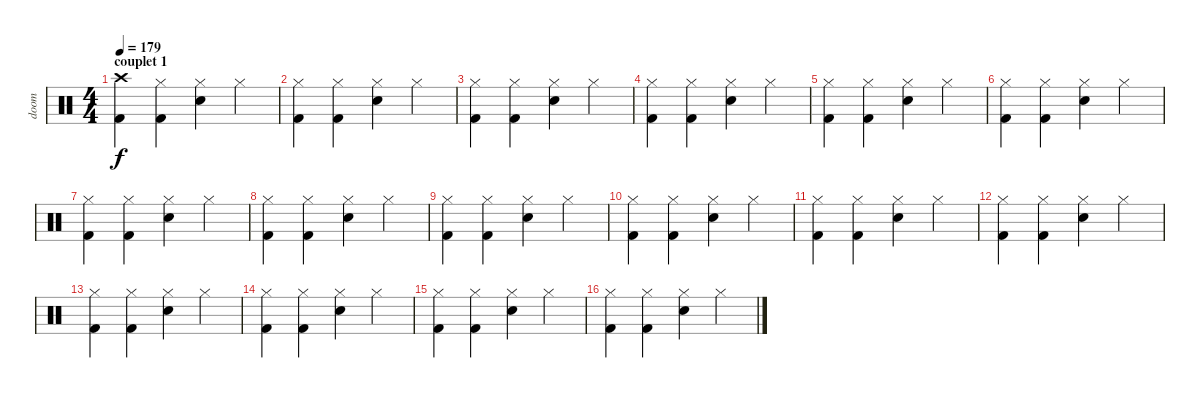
\track ("doom" "doom") {instrument percussion}
\staff {score}
\articulation defaults
\ts (4 4)
\section ("" "couplet 1")
\tempo 179
\clef neutral
\ks c
("Crash high (hit)" "Kick (hit) 2").4{dy f} ("Hi-Hat (closed)" "Kick (hit) 2").4 ("Hi-Hat (closed)" "Snare (hit) 2").4 "Hi-Hat (closed)".4 |
("Hi-Hat (closed)" "Kick (hit) 2").4 ("Hi-Hat (closed)" "Kick (hit) 2").4 ("Hi-Hat (closed)" "Snare (hit) 2").4 "Hi-Hat (closed)".4 |
("Hi-Hat (closed)" "Kick (hit) 2").4 ("Hi-Hat (closed)" "Kick (hit) 2").4 ("Hi-Hat (closed)" "Snare (hit) 2").4 "Hi-Hat (closed)".4 |
("Hi-Hat (closed)" "Kick (hit) 2").4 ("Hi-Hat (closed)" "Kick (hit) 2").4 ("Hi-Hat (closed)" "Snare (hit) 2").4 "Hi-Hat (closed)".4 |
("Hi-Hat (closed)" "Kick (hit) 2").4 ("Hi-Hat (closed)" "Kick (hit) 2").4 ("Hi-Hat (closed)" "Snare (hit) 2").4 "Hi-Hat (closed)".4 |
("Hi-Hat (closed)" "Kick (hit) 2").4 ("Hi-Hat (closed)" "Kick (hit) 2").4 ("Hi-Hat (closed)" "Snare (hit) 2").4 "Hi-Hat (closed)".4 |
("Hi-Hat (closed)" "Kick (hit) 2").4 ("Hi-Hat (closed)" "Kick (hit) 2").4 ("Hi-Hat (closed)" "Snare (hit) 2").4 "Hi-Hat (closed)".4 |
("Hi-Hat (closed)" "Kick (hit) 2").4 ("Hi-Hat (closed)" "Kick (hit) 2").4 ("Hi-Hat (closed)" "Snare (hit) 2").4 "Hi-Hat (closed)".4 |
("Hi-Hat (closed)" "Kick (hit) 2").4 ("Hi-Hat (closed)" "Kick (hit) 2").4 ("Hi-Hat (closed)" "Snare (hit) 2").4 "Hi-Hat (closed)".4 |
("Hi-Hat (closed)" "Kick (hit) 2").4 ("Hi-Hat (closed)" "Kick (hit) 2").4 ("Hi-Hat (closed)" "Snare (hit) 2").4 "Hi-Hat (closed)".4 |
("Hi-Hat (closed)" "Kick (hit) 2").4 ("Hi-Hat (closed)" "Kick (hit) 2").4 ("Hi-Hat (closed)" "Snare (hit) 2").4 "Hi-Hat (closed)".4 |
("Hi-Hat (closed)" "Kick (hit) 2").4 ("Hi-Hat (closed)" "Kick (hit) 2").4 ("Hi-Hat (closed)" "Snare (hit) 2").4 "Hi-Hat (closed)".4 |
("Hi-Hat (closed)" "Kick (hit) 2").4 ("Hi-Hat (closed)" "Kick (hit) 2").4 ("Hi-Hat (closed)" "Snare (hit) 2").4 "Hi-Hat (closed)".4 |
("Hi-Hat (closed)" "Kick (hit) 2").4 ("Hi-Hat (closed)" "Kick (hit) 2").4 ("Hi-Hat (closed)" "Snare (hit) 2").4 "Hi-Hat (closed)".4 |
("Hi-Hat (closed)" "Kick (hit) 2").4 ("Hi-Hat (closed)" "Kick (hit) 2").4 ("Hi-Hat (closed)" "Snare (hit) 2").4 "Hi-Hat (closed)".4 |
("Hi-Hat (closed)" "Kick (hit) 2").4 ("Hi-Hat (closed)" "Kick (hit) 2").4 ("Hi-Hat (closed)" "Snare (hit) 2").4 "Hi-Hat (closed)".4
